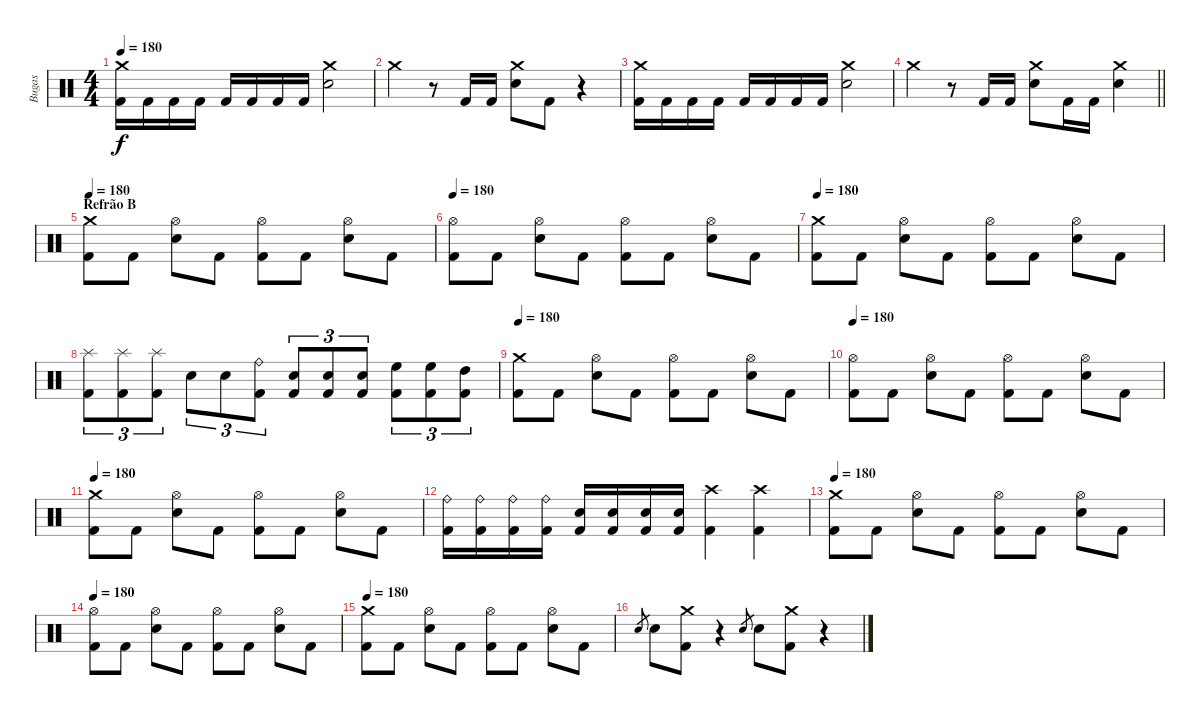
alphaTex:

\track ("Bugas" "Bugas") {instrument percussion}
\staff {score}
\articulation defaults
\ts (4 4)
\tempo 180
\clef neutral
\ks c
("Crash medium (hit)" "Kick (hit) 2").16{dy f} "Kick (hit) 2".16 "Kick (hit) 2".16 "Kick (hit) 2".16 "Kick (hit) 2".16 "Kick (hit) 2".16 "Kick (hit) 2".16 "Kick (hit) 2".16 ("Crash medium (hit)" "Electric Snare (hit)").2 |
"Crash medium (hit)".4 r.8 "Kick (hit) 2".16 "Kick (hit) 2".16 ("Crash medium (hit)" "Electric Snare (hit)").8 "Kick (hit) 2".8 r.4 |
("Crash medium (hit)" "Kick (hit) 2").16 "Kick (hit) 2".16 "Kick (hit) 2".16 "Kick (hit) 2".16 "Kick (hit) 2".16 "Kick (hit) 2".16 "Kick (hit) 2".16 "Kick (hit) 2".16 ("Crash medium (hit)" "Electric Snare (hit)").2 |
\barLineRight lightlight "Crash medium (hit)".4
r.8 "Kick (hit) 2".16 "Kick (hit) 2".16 ("Crash medium (hit)" "Electric Snare (hit)").8 "Kick (hit) 2".16 "Kick (hit) 2".16 ("Crash medium (hit)" "Electric Snare (hit)").4 |
\section ("" "Refrão B")
\tempo 180
("Crash medium (hit)" "Kick (hit) 2").8 "Kick (hit) 2".8 ("Hi-Hat (open)" "Electric Snare (hit)").8 "Kick (hit) 2".8 ("Hi-Hat (open)" "Kick (hit) 2").8 "Kick (hit) 2".8 ("Hi-Hat (open)" "Electric Snare (hit)").8 "Kick (hit) 2".8 |
\tempo 180
("Hi-Hat (open)" "Kick (hit) 2").8 "Kick (hit) 2".8 ("Hi-Hat (open)" "Electric Snare (hit)").8 "Kick (hit) 2".8 ("Hi-Hat (open)" "Kick (hit) 2").8 "Kick (hit) 2".8 ("Hi-Hat (open)" "Electric Snare (hit)").8 "Kick (hit) 2".8 |
\tempo 180
("Crash medium (hit)" "Kick (hit) 2").8 "Kick (hit) 2".8 ("Hi-Hat (open)" "Electric Snare (hit)").8 "Kick (hit) 2".8 ("Hi-Hat (open)" "Kick (hit) 2").8 "Kick (hit) 2".8 ("Hi-Hat (open)" "Electric Snare (hit)").8 "Kick (hit) 2".8 |
("Splash (hit)" "Kick (hit) 2").8{tu (3 2)} ("Splash (hit)" "Kick (hit) 2").8{tu (3 2)} ("Splash (hit)" "Kick (hit) 2").8{tu (3 2)} "Electric Snare (hit)".8{tu (3 2)} "Electric Snare (hit)".8{tu (3 2)} ("Ride (bell)" "Kick (hit) 2").8{tu (3 2)} ("Electric Snare (hit)" "Kick (hit) 2").8{tu (3 2)} ("Electric Snare (hit)" "Kick (hit) 2").8{tu (3 2)} ("Electric Snare (hit)" "Kick (hit) 2").8{tu (3 2)} ("High Floor Tom (hit)" "Kick (hit) 2").8{tu (3 2)} ("High Floor Tom (hit)" "Kick (hit) 2").8{tu (3 2)} ("High Tom (hit)" "Kick (hit) 2").8{tu (3 2)} |
\tempo 180
("Crash medium (hit)" "Kick (hit) 2").8 "Kick (hit) 2".8 ("Hi-Hat (open)" "Electric Snare (hit)").8 "Kick (hit) 2".8 ("Hi-Hat (open)" "Kick (hit) 2").8 "Kick (hit) 2".8 ("Hi-Hat (open)" "Electric Snare (hit)").8 "Kick (hit) 2".8 |
\tempo 180
("Hi-Hat (open)" "Kick (hit) 2").8 "Kick (hit) 2".8 ("Hi-Hat (open)" "Electric Snare (hit)").8 "Kick (hit) 2".8 ("Hi-Hat (open)" "Kick (hit) 2").8 "Kick (hit) 2".8 ("Hi-Hat (open)" "Electric Snare (hit)").8 "Kick (hit) 2".8 |
\tempo 180
("Crash medium (hit)" "Kick (hit) 2").8 "Kick (hit) 2".8 ("Hi-Hat (open)" "Electric Snare (hit)").8 "Kick (hit) 2".8 ("Hi-Hat (open)" "Kick (hit) 2").8 "Kick (hit) 2".8 ("Hi-Hat (open)" "Electric Snare (hit)").8 "Kick (hit) 2".8 |
("Ride (bell)" "Kick (hit) 2").16 ("Ride (bell)" "Kick (hit) 2").16 ("Ride (bell)" "Kick (hit) 2").16 ("Ride (bell)" "Kick (hit) 2").16 ("Electric Snare (hit)" "Kick (hit) 2").16 ("Electric Snare (hit)" "Kick (hit) 2").16 ("Electric Snare (hit)" "Kick (hit) 2").16 ("Electric Snare (hit)" "Kick (hit) 2").16 ("Crash high (hit)" "Kick (hit) 2").4 ("Crash high (hit)" "Kick (hit) 2").4 |
\tempo 180
("Crash medium (hit)" "Kick (hit) 2").8 "Kick (hit) 2".8 ("Hi-Hat (open)" "Electric Snare (hit)").8 "Kick (hit) 2".8 ("Hi-Hat (open)" "Kick (hit) 2").8 "Kick (hit) 2".8 ("Hi-Hat (open)" "Electric Snare (hit)").8 "Kick (hit) 2".8 |
\tempo 180
("Hi-Hat (open)" "Kick (hit) 2").8 "Kick (hit) 2".8 ("Hi-Hat (open)" "Electric Snare (hit)").8 "Kick (hit) 2".8 ("Hi-Hat (open)" "Kick (hit) 2").8 "Kick (hit) 2".8 ("Hi-Hat (open)" "Electric Snare (hit)").8 "Kick (hit) 2".8 |
\tempo 180
("Crash medium (hit)" "Kick (hit) 2").8 "Kick (hit) 2".8 ("Hi-Hat (open)" "Electric Snare (hit)").8 "Kick (hit) 2".8 ("Hi-Hat (open)" "Kick (hit) 2").8 "Kick (hit) 2".8 ("Hi-Hat (open)" "Electric Snare (hit)").8 "Kick (hit) 2".8 |
"Electric Snare (hit)".8{gr} "Electric Snare (hit)".8 ("Crash medium (hit)" "Kick (hit) 2").8 r.4 "Electric Snare (hit)".8{gr} "Electric Snare (hit)".8 ("Crash medium (hit)" "Kick (hit) 2").8 r.4
